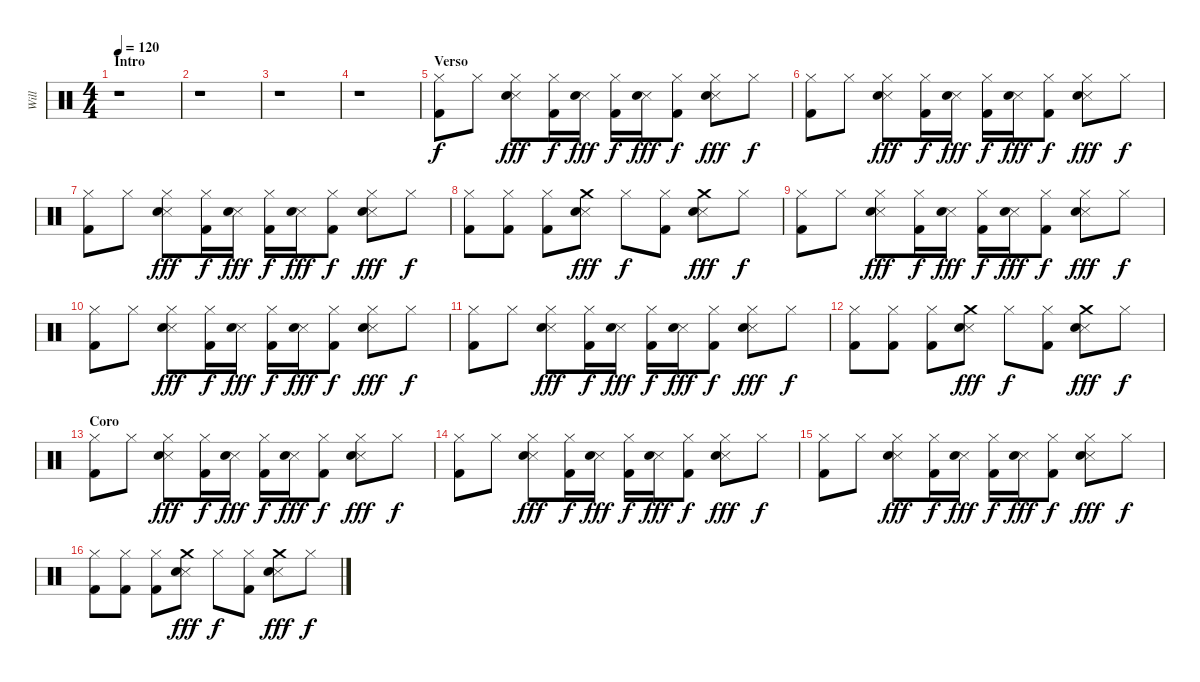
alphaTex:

\track ("Will " "Will ") {instrument percussion}
\staff {score}
\articulation defaults
\ts (4 4)
\section ("" "Intro")
\tempo 120
\clef neutral
\ks c
r.1{dy f} |
r.1 |
r.1 |
r.1 |
\section ("" "Verso")
("Hi-Hat (closed)" "Kick (hit) 2").8 "Hi-Hat (closed)".8 ("Hi-Hat (closed)" "Snare (side stick) 3" "Electric Snare (hit)").8{dy fff} ("Hi-Hat (closed)" "Kick (hit) 2").16{dy f} ("Snare (side stick) 3" "Electric Snare (hit)").16{dy fff} ("Hi-Hat (closed)" "Kick (hit) 2").16{dy f} ("Snare (side stick) 3" "Electric Snare (hit)").16{dy fff} ("Hi-Hat (closed)" "Kick (hit) 2").8{dy f} ("Hi-Hat (closed)" "Snare (side stick) 3" "Electric Snare (hit)").8{dy fff} "Hi-Hat (closed)".8{dy f} |
("Hi-Hat (closed)" "Kick (hit) 2").8 "Hi-Hat (closed)".8 ("Hi-Hat (closed)" "Snare (side stick) 3" "Electric Snare (hit)").8{dy fff} ("Hi-Hat (closed)" "Kick (hit) 2").16{dy f} ("Snare (side stick) 3" "Electric Snare (hit)").16{dy fff} ("Hi-Hat (closed)" "Kick (hit) 2").16{dy f} ("Snare (side stick) 3" "Electric Snare (hit)").16{dy fff} ("Hi-Hat (closed)" "Kick (hit) 2").8{dy f} ("Hi-Hat (closed)" "Snare (side stick) 3" "Electric Snare (hit)").8{dy fff} "Hi-Hat (closed)".8{dy f} |
("Hi-Hat (closed)" "Kick (hit) 2").8 "Hi-Hat (closed)".8 ("Hi-Hat (closed)" "Snare (side stick) 3" "Electric Snare (hit)").8{dy fff} ("Hi-Hat (closed)" "Kick (hit) 2").16{dy f} ("Snare (side stick) 3" "Electric Snare (hit)").16{dy fff} ("Hi-Hat (closed)" "Kick (hit) 2").16{dy f} ("Snare (side stick) 3" "Electric Snare (hit)").16{dy fff} ("Hi-Hat (closed)" "Kick (hit) 2").8{dy f} ("Hi-Hat (closed)" "Snare (side stick) 3" "Electric Snare (hit)").8{dy fff} "Hi-Hat (closed)".8{dy f} |
("Hi-Hat (closed)" "Kick (hit) 2").8 ("Hi-Hat (closed)" "Kick (hit) 2").8 ("Hi-Hat (closed)" "Kick (hit) 2").8 ("Crash medium (hit)" "Snare (side stick) 3" "Electric Snare (hit)").8{dy fff} "Hi-Hat (closed)".8{dy f} ("Hi-Hat (closed)" "Kick (hit) 2").8 ("Crash medium (hit)" "Snare (side stick) 3" "Electric Snare (hit)").8{dy fff} "Hi-Hat (closed)".8{dy f} |
("Hi-Hat (closed)" "Kick (hit) 2").8 "Hi-Hat (closed)".8 ("Hi-Hat (closed)" "Snare (side stick) 3" "Electric Snare (hit)").8{dy fff} ("Hi-Hat (closed)" "Kick (hit) 2").16{dy f} ("Snare (side stick) 3" "Electric Snare (hit)").16{dy fff} ("Hi-Hat (closed)" "Kick (hit) 2").16{dy f} ("Snare (side stick) 3" "Electric Snare (hit)").16{dy fff} ("Hi-Hat (closed)" "Kick (hit) 2").8{dy f} ("Hi-Hat (closed)" "Snare (side stick) 3" "Electric Snare (hit)").8{dy fff} "Hi-Hat (closed)".8{dy f} |
("Hi-Hat (closed)" "Kick (hit) 2").8 "Hi-Hat (closed)".8 ("Hi-Hat (closed)" "Snare (side stick) 3" "Electric Snare (hit)").8{dy fff} ("Hi-Hat (closed)" "Kick (hit) 2").16{dy f} ("Snare (side stick) 3" "Electric Snare (hit)").16{dy fff} ("Hi-Hat (closed)" "Kick (hit) 2").16{dy f} ("Snare (side stick) 3" "Electric Snare (hit)").16{dy fff} ("Hi-Hat (closed)" "Kick (hit) 2").8{dy f} ("Hi-Hat (closed)" "Snare (side stick) 3" "Electric Snare (hit)").8{dy fff} "Hi-Hat (closed)".8{dy f} |
("Hi-Hat (closed)" "Kick (hit) 2").8 "Hi-Hat (closed)".8 ("Hi-Hat (closed)" "Snare (side stick) 3" "Electric Snare (hit)").8{dy fff} ("Hi-Hat (closed)" "Kick (hit) 2").16{dy f} ("Snare (side stick) 3" "Electric Snare (hit)").16{dy fff} ("Hi-Hat (closed)" "Kick (hit) 2").16{dy f} ("Snare (side stick) 3" "Electric Snare (hit)").16{dy fff} ("Hi-Hat (closed)" "Kick (hit) 2").8{dy f} ("Hi-Hat (closed)" "Snare (side stick) 3" "Electric Snare (hit)").8{dy fff} "Hi-Hat (closed)".8{dy f} |
("Hi-Hat (closed)" "Kick (hit) 2").8 ("Hi-Hat (closed)" "Kick (hit) 2").8 ("Hi-Hat (closed)" "Kick (hit) 2").8 ("Crash medium (hit)" "Snare (side stick) 3" "Electric Snare (hit)").8{dy fff} "Hi-Hat (closed)".8{dy f} ("Hi-Hat (closed)" "Kick (hit) 2").8 ("Crash medium (hit)" "Snare (side stick) 3" "Electric Snare (hit)").8{dy fff} "Hi-Hat (closed)".8{dy f} |
\section ("" "Coro")
("Hi-Hat (closed)" "Kick (hit) 2").8 "Hi-Hat (closed)".8 ("Hi-Hat (closed)" "Snare (side stick) 3" "Electric Snare (hit)").8{dy fff} ("Hi-Hat (closed)" "Kick (hit) 2").16{dy f} ("Snare (side stick) 3" "Electric Snare (hit)").16{dy fff} ("Hi-Hat (closed)" "Kick (hit) 2").16{dy f} ("Snare (side stick) 3" "Electric Snare (hit)").16{dy fff} ("Hi-Hat (closed)" "Kick (hit) 2").8{dy f} ("Hi-Hat (closed)" "Snare (side stick) 3" "Electric Snare (hit)").8{dy fff} "Hi-Hat (closed)".8{dy f} |
("Hi-Hat (closed)" "Kick (hit) 2").8 "Hi-Hat (closed)".8 ("Hi-Hat (closed)" "Snare (side stick) 3" "Electric Snare (hit)").8{dy fff} ("Hi-Hat (closed)" "Kick (hit) 2").16{dy f} ("Snare (side stick) 3" "Electric Snare (hit)").16{dy fff} ("Hi-Hat (closed)" "Kick (hit) 2").16{dy f} ("Snare (side stick) 3" "Electric Snare (hit)").16{dy fff} ("Hi-Hat (closed)" "Kick (hit) 2").8{dy f} ("Hi-Hat (closed)" "Snare (side stick) 3" "Electric Snare (hit)").8{dy fff} "Hi-Hat (closed)".8{dy f} |
("Hi-Hat (closed)" "Kick (hit) 2").8 "Hi-Hat (closed)".8 ("Hi-Hat (closed)" "Snare (side stick) 3" "Electric Snare (hit)").8{dy fff} ("Hi-Hat (closed)" "Kick (hit) 2").16{dy f} ("Snare (side stick) 3" "Electric Snare (hit)").16{dy fff} ("Hi-Hat (closed)" "Kick (hit) 2").16{dy f} ("Snare (side stick) 3" "Electric Snare (hit)").16{dy fff} ("Hi-Hat (closed)" "Kick (hit) 2").8{dy f} ("Hi-Hat (closed)" "Snare (side stick) 3" "Electric Snare (hit)").8{dy fff} "Hi-Hat (closed)".8{dy f} |
("Hi-Hat (closed)" "Kick (hit) 2").8 ("Hi-Hat (closed)" "Kick (hit) 2").8 ("Hi-Hat (closed)" "Kick (hit) 2").8 ("Crash medium (hit)" "Snare (side stick) 3" "Electric Snare (hit)").8{dy fff} "Hi-Hat (closed)".8{dy f} ("Hi-Hat (closed)" "Kick (hit) 2").8 ("Crash medium (hit)" "Snare (side stick) 3" "Electric Snare (hit)").8{dy fff} "Hi-Hat (closed)".8{dy f}
